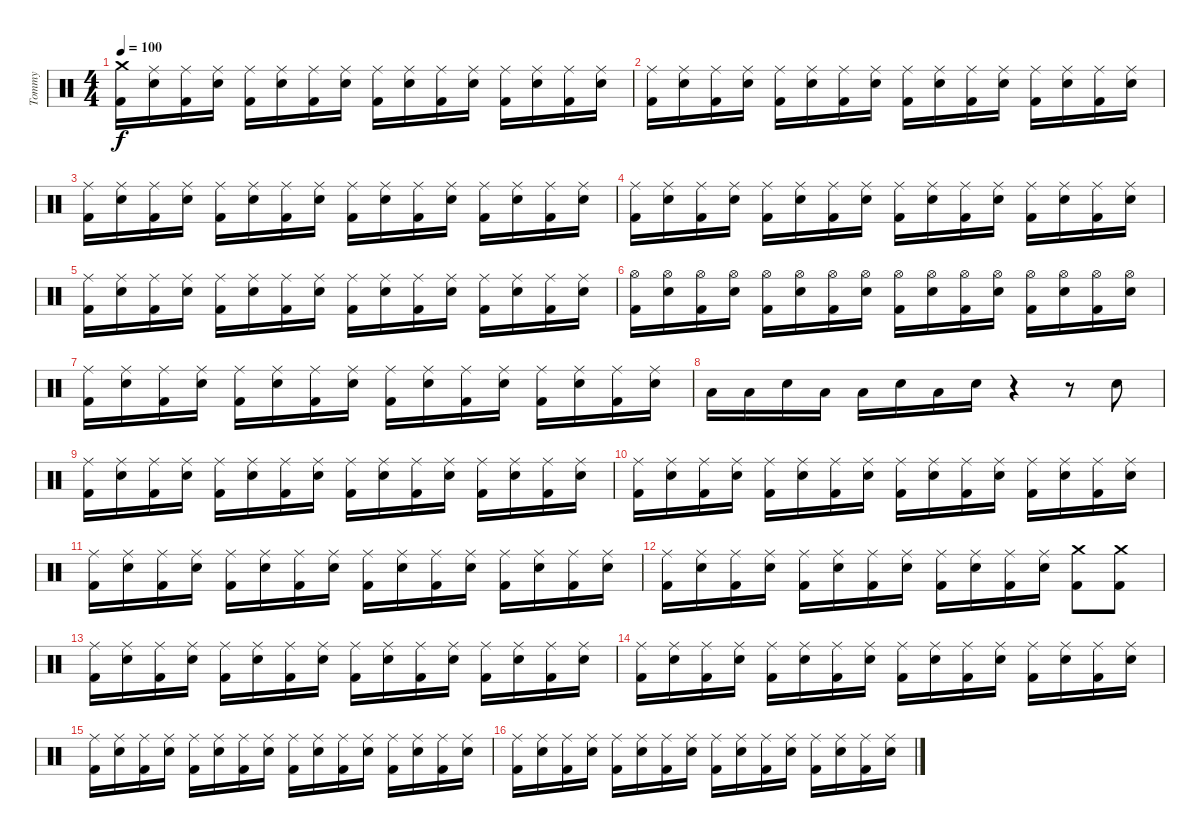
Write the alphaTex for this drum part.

\track ("Tommy" "Tommy") {instrument percussion}
\staff {score}
\articulation defaults
\ts (4 4)
\tempo 100
\clef neutral
\ks c
("Crash medium (hit)" "Kick (hit) 2").16{dy f} ("Ride (middle)" "Snare (hit) 2").16 ("Ride (middle)" "Kick (hit) 2").16 ("Ride (middle)" "Snare (hit) 2").16 ("Ride (middle)" "Kick (hit) 2").16 ("Ride (middle)" "Snare (hit) 2").16 ("Ride (middle)" "Kick (hit) 2").16 ("Ride (middle)" "Snare (hit) 2").16 ("Ride (middle)" "Kick (hit) 2").16 ("Ride (middle)" "Snare (hit) 2").16 ("Ride (middle)" "Kick (hit) 2").16 ("Ride (middle)" "Snare (hit) 2").16 ("Ride (middle)" "Kick (hit) 2").16 ("Ride (middle)" "Snare (hit) 2").16 ("Ride (middle)" "Kick (hit) 2").16 ("Ride (middle)" "Snare (hit) 2").16 |
("Ride (middle)" "Kick (hit) 2").16 ("Ride (middle)" "Snare (hit) 2").16 ("Ride (middle)" "Kick (hit) 2").16 ("Ride (middle)" "Snare (hit) 2").16 ("Ride (middle)" "Kick (hit) 2").16 ("Ride (middle)" "Snare (hit) 2").16 ("Ride (middle)" "Kick (hit) 2").16 ("Ride (middle)" "Snare (hit) 2").16 ("Ride (middle)" "Kick (hit) 2").16 ("Ride (middle)" "Snare (hit) 2").16 ("Ride (middle)" "Kick (hit) 2").16 ("Ride (middle)" "Snare (hit) 2").16 ("Ride (middle)" "Kick (hit) 2").16 ("Ride (middle)" "Snare (hit) 2").16 ("Ride (middle)" "Kick (hit) 2").16 ("Ride (middle)" "Snare (hit) 2").16 |
("Ride (middle)" "Kick (hit) 2").16 ("Ride (middle)" "Snare (hit) 2").16 ("Ride (middle)" "Kick (hit) 2").16 ("Ride (middle)" "Snare (hit) 2").16 ("Ride (middle)" "Kick (hit) 2").16 ("Ride (middle)" "Snare (hit) 2").16 ("Ride (middle)" "Kick (hit) 2").16 ("Ride (middle)" "Snare (hit) 2").16 ("Ride (middle)" "Kick (hit) 2").16 ("Ride (middle)" "Snare (hit) 2").16 ("Ride (middle)" "Kick (hit) 2").16 ("Ride (middle)" "Snare (hit) 2").16 ("Ride (middle)" "Kick (hit) 2").16 ("Ride (middle)" "Snare (hit) 2").16 ("Ride (middle)" "Kick (hit) 2").16 ("Ride (middle)" "Snare (hit) 2").16 |
("Ride (middle)" "Kick (hit) 2").16 ("Ride (middle)" "Snare (hit) 2").16 ("Ride (middle)" "Kick (hit) 2").16 ("Ride (middle)" "Snare (hit) 2").16 ("Ride (middle)" "Kick (hit) 2").16 ("Ride (middle)" "Snare (hit) 2").16 ("Ride (middle)" "Kick (hit) 2").16 ("Ride (middle)" "Snare (hit) 2").16 ("Ride (middle)" "Kick (hit) 2").16 ("Ride (middle)" "Snare (hit) 2").16 ("Ride (middle)" "Kick (hit) 2").16 ("Ride (middle)" "Snare (hit) 2").16 ("Ride (middle)" "Kick (hit) 2").16 ("Ride (middle)" "Snare (hit) 2").16 ("Ride (middle)" "Kick (hit) 2").16 ("Ride (middle)" "Snare (hit) 2").16 |
("Ride (middle)" "Kick (hit) 2").16 ("Ride (middle)" "Snare (hit) 2").16 ("Ride (middle)" "Kick (hit) 2").16 ("Ride (middle)" "Snare (hit) 2").16 ("Ride (middle)" "Kick (hit) 2").16 ("Ride (middle)" "Snare (hit) 2").16 ("Ride (middle)" "Kick (hit) 2").16 ("Ride (middle)" "Snare (hit) 2").16 ("Ride (middle)" "Kick (hit) 2").16 ("Ride (middle)" "Snare (hit) 2").16 ("Ride (middle)" "Kick (hit) 2").16 ("Ride (middle)" "Snare (hit) 2").16 ("Ride (middle)" "Kick (hit) 2").16 ("Ride (middle)" "Snare (hit) 2").16 ("Ride (middle)" "Kick (hit) 2").16 ("Ride (middle)" "Snare (hit) 2").16 |
("Hi-Hat (open)" "Kick (hit) 2").16 ("Hi-Hat (open)" "Snare (hit) 2").16 ("Hi-Hat (open)" "Kick (hit) 2").16 ("Hi-Hat (open)" "Snare (hit) 2").16 ("Hi-Hat (open)" "Kick (hit) 2").16 ("Hi-Hat (open)" "Snare (hit) 2").16 ("Hi-Hat (open)" "Kick (hit) 2").16 ("Hi-Hat (open)" "Snare (hit) 2").16 ("Hi-Hat (open)" "Kick (hit) 2").16 ("Hi-Hat (open)" "Snare (hit) 2").16 ("Hi-Hat (open)" "Kick (hit) 2").16 ("Hi-Hat (open)" "Snare (hit) 2").16 ("Hi-Hat (open)" "Kick (hit) 2").16 ("Hi-Hat (open)" "Snare (hit) 2").16 ("Hi-Hat (open)" "Kick (hit) 2").16 ("Hi-Hat (open)" "Snare (hit) 2").16 |
("Ride (middle)" "Kick (hit) 2").16 ("Ride (middle)" "Snare (hit) 2").16 ("Ride (middle)" "Kick (hit) 2").16 ("Ride (middle)" "Snare (hit) 2").16 ("Ride (middle)" "Kick (hit) 2").16 ("Ride (middle)" "Snare (hit) 2").16 ("Ride (middle)" "Kick (hit) 2").16 ("Ride (middle)" "Snare (hit) 2").16 ("Ride (middle)" "Kick (hit) 2").16 ("Ride (middle)" "Snare (hit) 2").16 ("Ride (middle)" "Kick (hit) 2").16 ("Ride (middle)" "Snare (hit) 2").16 ("Ride (middle)" "Kick (hit) 2").16 ("Ride (middle)" "Snare (hit) 2").16 ("Ride (middle)" "Kick (hit) 2").16 ("Ride (middle)" "Snare (hit) 2").16 |
"Low Tom (hit)".16 "Low Tom (hit)".16 "Snare (hit) 2".16 "Low Tom (hit)".16 "Low Tom (hit)".16 "Snare (hit) 2".16 "Low Tom (hit)".16 "Snare (hit) 2".16 r.4 r.8 "Snare (hit) 2".8 |
("Ride (middle)" "Kick (hit) 2").16 ("Ride (middle)" "Snare (hit) 2").16 ("Ride (middle)" "Kick (hit) 2").16 ("Ride (middle)" "Snare (hit) 2").16 ("Ride (middle)" "Kick (hit) 2").16 ("Ride (middle)" "Snare (hit) 2").16 ("Ride (middle)" "Kick (hit) 2").16 ("Ride (middle)" "Snare (hit) 2").16 ("Ride (middle)" "Kick (hit) 2").16 ("Ride (middle)" "Snare (hit) 2").16 ("Ride (middle)" "Kick (hit) 2").16 ("Ride (middle)" "Snare (hit) 2").16 ("Ride (middle)" "Kick (hit) 2").16 ("Ride (middle)" "Snare (hit) 2").16 ("Ride (middle)" "Kick (hit) 2").16 ("Ride (middle)" "Snare (hit) 2").16 |
("Ride (middle)" "Kick (hit) 2").16 ("Ride (middle)" "Snare (hit) 2").16 ("Ride (middle)" "Kick (hit) 2").16 ("Ride (middle)" "Snare (hit) 2").16 ("Ride (middle)" "Kick (hit) 2").16 ("Ride (middle)" "Snare (hit) 2").16 ("Ride (middle)" "Kick (hit) 2").16 ("Ride (middle)" "Snare (hit) 2").16 ("Ride (middle)" "Kick (hit) 2").16 ("Ride (middle)" "Snare (hit) 2").16 ("Ride (middle)" "Kick (hit) 2").16 ("Ride (middle)" "Snare (hit) 2").16 ("Ride (middle)" "Kick (hit) 2").16 ("Ride (middle)" "Snare (hit) 2").16 ("Ride (middle)" "Kick (hit) 2").16 ("Ride (middle)" "Snare (hit) 2").16 |
("Ride (middle)" "Kick (hit) 2").16 ("Ride (middle)" "Snare (hit) 2").16 ("Ride (middle)" "Kick (hit) 2").16 ("Ride (middle)" "Snare (hit) 2").16 ("Ride (middle)" "Kick (hit) 2").16 ("Ride (middle)" "Snare (hit) 2").16 ("Ride (middle)" "Kick (hit) 2").16 ("Ride (middle)" "Snare (hit) 2").16 ("Ride (middle)" "Kick (hit) 2").16 ("Ride (middle)" "Snare (hit) 2").16 ("Ride (middle)" "Kick (hit) 2").16 ("Ride (middle)" "Snare (hit) 2").16 ("Ride (middle)" "Kick (hit) 2").16 ("Ride (middle)" "Snare (hit) 2").16 ("Ride (middle)" "Kick (hit) 2").16 ("Ride (middle)" "Snare (hit) 2").16 |
("Ride (middle)" "Kick (hit) 2").16 ("Ride (middle)" "Snare (hit) 2").16 ("Ride (middle)" "Kick (hit) 2").16 ("Ride (middle)" "Snare (hit) 2").16 ("Ride (middle)" "Kick (hit) 2").16 ("Ride (middle)" "Snare (hit) 2").16 ("Ride (middle)" "Kick (hit) 2").16 ("Ride (middle)" "Snare (hit) 2").16 ("Ride (middle)" "Kick (hit) 2").16 ("Ride (middle)" "Snare (hit) 2").16 ("Ride (middle)" "Kick (hit) 2").16 ("Ride (middle)" "Snare (hit) 2").16 ("Crash medium (hit)" "Kick (hit) 2").8 ("Crash medium (hit)" "Kick (hit) 2").8 |
("Ride (middle)" "Kick (hit) 2").16 ("Ride (middle)" "Snare (hit) 2").16 ("Ride (middle)" "Kick (hit) 2").16 ("Ride (middle)" "Snare (hit) 2").16 ("Ride (middle)" "Kick (hit) 2").16 ("Ride (middle)" "Snare (hit) 2").16 ("Ride (middle)" "Kick (hit) 2").16 ("Ride (middle)" "Snare (hit) 2").16 ("Ride (middle)" "Kick (hit) 2").16 ("Ride (middle)" "Snare (hit) 2").16 ("Ride (middle)" "Kick (hit) 2").16 ("Ride (middle)" "Snare (hit) 2").16 ("Ride (middle)" "Kick (hit) 2").16 ("Ride (middle)" "Snare (hit) 2").16 ("Ride (middle)" "Kick (hit) 2").16 ("Ride (middle)" "Snare (hit) 2").16 |
("Ride (middle)" "Kick (hit) 2").16 ("Ride (middle)" "Snare (hit) 2").16 ("Ride (middle)" "Kick (hit) 2").16 ("Ride (middle)" "Snare (hit) 2").16 ("Ride (middle)" "Kick (hit) 2").16 ("Ride (middle)" "Snare (hit) 2").16 ("Ride (middle)" "Kick (hit) 2").16 ("Ride (middle)" "Snare (hit) 2").16 ("Ride (middle)" "Kick (hit) 2").16 ("Ride (middle)" "Snare (hit) 2").16 ("Ride (middle)" "Kick (hit) 2").16 ("Ride (middle)" "Snare (hit) 2").16 ("Ride (middle)" "Kick (hit) 2").16 ("Ride (middle)" "Snare (hit) 2").16 ("Ride (middle)" "Kick (hit) 2").16 ("Ride (middle)" "Snare (hit) 2").16 |
("Ride (middle)" "Kick (hit) 2").16 ("Ride (middle)" "Snare (hit) 2").16 ("Ride (middle)" "Kick (hit) 2").16 ("Ride (middle)" "Snare (hit) 2").16 ("Ride (middle)" "Kick (hit) 2").16 ("Ride (middle)" "Snare (hit) 2").16 ("Ride (middle)" "Kick (hit) 2").16 ("Ride (middle)" "Snare (hit) 2").16 ("Ride (middle)" "Kick (hit) 2").16 ("Ride (middle)" "Snare (hit) 2").16 ("Ride (middle)" "Kick (hit) 2").16 ("Ride (middle)" "Snare (hit) 2").16 ("Ride (middle)" "Kick (hit) 2").16 ("Ride (middle)" "Snare (hit) 2").16 ("Ride (middle)" "Kick (hit) 2").16 ("Ride (middle)" "Snare (hit) 2").16 |
("Ride (middle)" "Kick (hit) 2").16 ("Ride (middle)" "Snare (hit) 2").16 ("Ride (middle)" "Kick (hit) 2").16 ("Ride (middle)" "Snare (hit) 2").16 ("Ride (middle)" "Kick (hit) 2").16 ("Ride (middle)" "Snare (hit) 2").16 ("Ride (middle)" "Kick (hit) 2").16 ("Ride (middle)" "Snare (hit) 2").16 ("Ride (middle)" "Kick (hit) 2").16 ("Ride (middle)" "Snare (hit) 2").16 ("Ride (middle)" "Kick (hit) 2").16 ("Ride (middle)" "Snare (hit) 2").16 ("Ride (middle)" "Kick (hit) 2").16 ("Ride (middle)" "Snare (hit) 2").16 ("Ride (middle)" "Kick (hit) 2").16 ("Ride (middle)" "Snare (hit) 2").16
